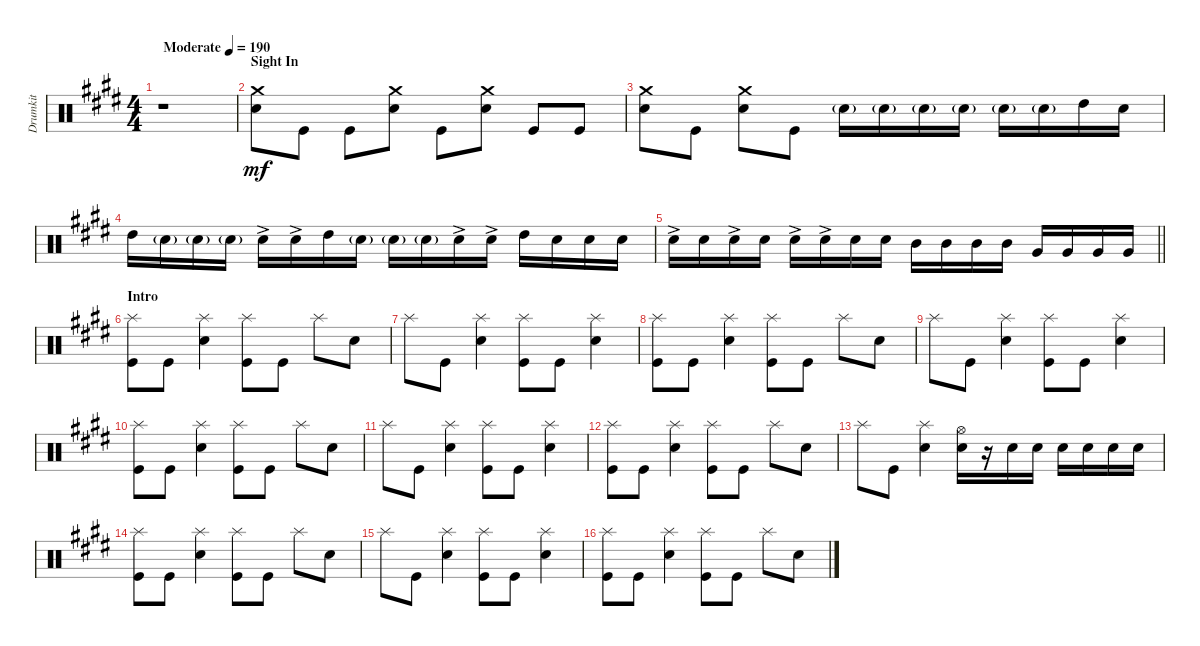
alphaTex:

\track ("Drumkit" "Drumkit") {instrument percussion}
\staff {score}
\articulation defaults
\ts (4 4)
\tempo (190 "Moderate")
\clef neutral
\ks e
r.1{dy mf} |
\section ("" "Sight In")
("Snare (hit) 2" "Crash medium (hit)").8 "Kick (hit)".8 "Kick (hit)".8 ("Crash medium (hit)" "Snare (hit) 2").8 "Kick (hit)".8 ("Snare (hit) 2" "Crash medium (hit)").8 "Kick (hit)".8 "Kick (hit)".8 |
("Snare (hit) 2" "Crash medium (hit)").8 "Kick (hit)".8 ("Crash medium (hit)" "Snare (hit) 2").8 "Kick (hit)".8 "Snare (hit) 2"{g}.16 "Snare (hit) 2"{g}.16 "Snare (hit) 2"{g}.16 "Snare (hit) 2"{g}.16 "Snare (hit) 2"{g}.16 "Snare (hit) 2"{g}.16 "High Tom (hit)".16 "Snare (hit) 2".16 |
"High Tom (hit)".16 "Snare (hit) 2"{g}.16 "Snare (hit) 2"{g}.16 "Snare (hit) 2"{g}.16 "Snare (hit) 2"{ac}.16 "Snare (hit) 2"{ac}.16 "High Tom (hit)".16 "Snare (hit) 2"{g}.16 "Snare (hit) 2"{g}.16 "Snare (hit) 2"{g}.16 "Snare (hit) 2"{ac}.16 "Snare (hit) 2"{ac}.16 "High Tom (hit)".16 "Snare (hit) 2".16 "Snare (hit) 2".16 "Snare (hit) 2".16 |
\barLineRight lightlight "Snare (hit) 2"{ac}.16 "Snare (hit) 2".16 "Snare (hit) 2"{ac}.16 "Snare (hit) 2".16 "Snare (hit) 2"{ac}.16 "Snare (hit) 2"{ac}.16 "Snare (hit) 2".16 "Snare (hit) 2".16 "Mid Tom (hit)".16 "Mid Tom (hit)".16 "Mid Tom (hit)".16 "Mid Tom (hit)".16 "Very Low Tom (hit)".16 "Very Low Tom (hit)".16 "Very Low Tom (hit)".16 "Very Low Tom (hit)".16
|
\section ("" "Intro")
("Splash (hit)" "Kick (hit)").8 "Kick (hit)".8 ("Splash (hit)" "Snare (hit) 2").4 ("Splash (hit)" "Kick (hit)").8 "Kick (hit)".8 "Splash (hit)".8 "Snare (hit) 2".8 |
"Splash (hit)".8 "Kick (hit)".8 ("Splash (hit)" "Snare (hit) 2").4 ("Splash (hit)" "Kick (hit)").8 "Kick (hit)".8 ("Snare (hit) 2" "Splash (hit)").4 |
("Splash (hit)" "Kick (hit)").8 "Kick (hit)".8 ("Splash (hit)" "Snare (hit) 2").4 ("Splash (hit)" "Kick (hit)").8 "Kick (hit)".8 "Splash (hit)".8 "Snare (hit) 2".8 |
"Splash (hit)".8 "Kick (hit)".8 ("Splash (hit)" "Snare (hit) 2").4 ("Splash (hit)" "Kick (hit)").8 "Kick (hit)".8 ("Snare (hit) 2" "Splash (hit)").4 |
("Splash (hit)" "Kick (hit)").8 "Kick (hit)".8 ("Splash (hit)" "Snare (hit) 2").4 ("Splash (hit)" "Kick (hit)").8 "Kick (hit)".8 "Splash (hit)".8 "Snare (hit) 2".8 |
"Splash (hit)".8 "Kick (hit)".8 ("Splash (hit)" "Snare (hit) 2").4 ("Splash (hit)" "Kick (hit)").8 "Kick (hit)".8 ("Snare (hit) 2" "Splash (hit)").4 |
("Splash (hit)" "Kick (hit)").8 "Kick (hit)".8 ("Splash (hit)" "Snare (hit) 2").4 ("Splash (hit)" "Kick (hit)").8 "Kick (hit)".8 "Splash (hit)".8 "Snare (hit) 2".8 |
"Splash (hit)".8 "Kick (hit)".8 ("Splash (hit)" "Snare (hit) 2").4 ("Snare (hit) 2" "Hi-Hat (open)").16 r.16 "Snare (hit) 2".16 "Snare (hit) 2".16 "Snare (hit) 2".16 "Snare (hit) 2".16 "Snare (hit) 2".16 "Snare (hit) 2".16 |
("Splash (hit)" "Kick (hit)").8 "Kick (hit)".8 ("Splash (hit)" "Snare (hit) 2").4 ("Splash (hit)" "Kick (hit)").8 "Kick (hit)".8 "Splash (hit)".8 "Snare (hit) 2".8 |
"Splash (hit)".8 "Kick (hit)".8 ("Splash (hit)" "Snare (hit) 2").4 ("Splash (hit)" "Kick (hit)").8 "Kick (hit)".8 ("Snare (hit) 2" "Splash (hit)").4 |
("Splash (hit)" "Kick (hit)").8 "Kick (hit)".8 ("Splash (hit)" "Snare (hit) 2").4 ("Splash (hit)" "Kick (hit)").8 "Kick (hit)".8 "Splash (hit)".8 "Snare (hit) 2".8
